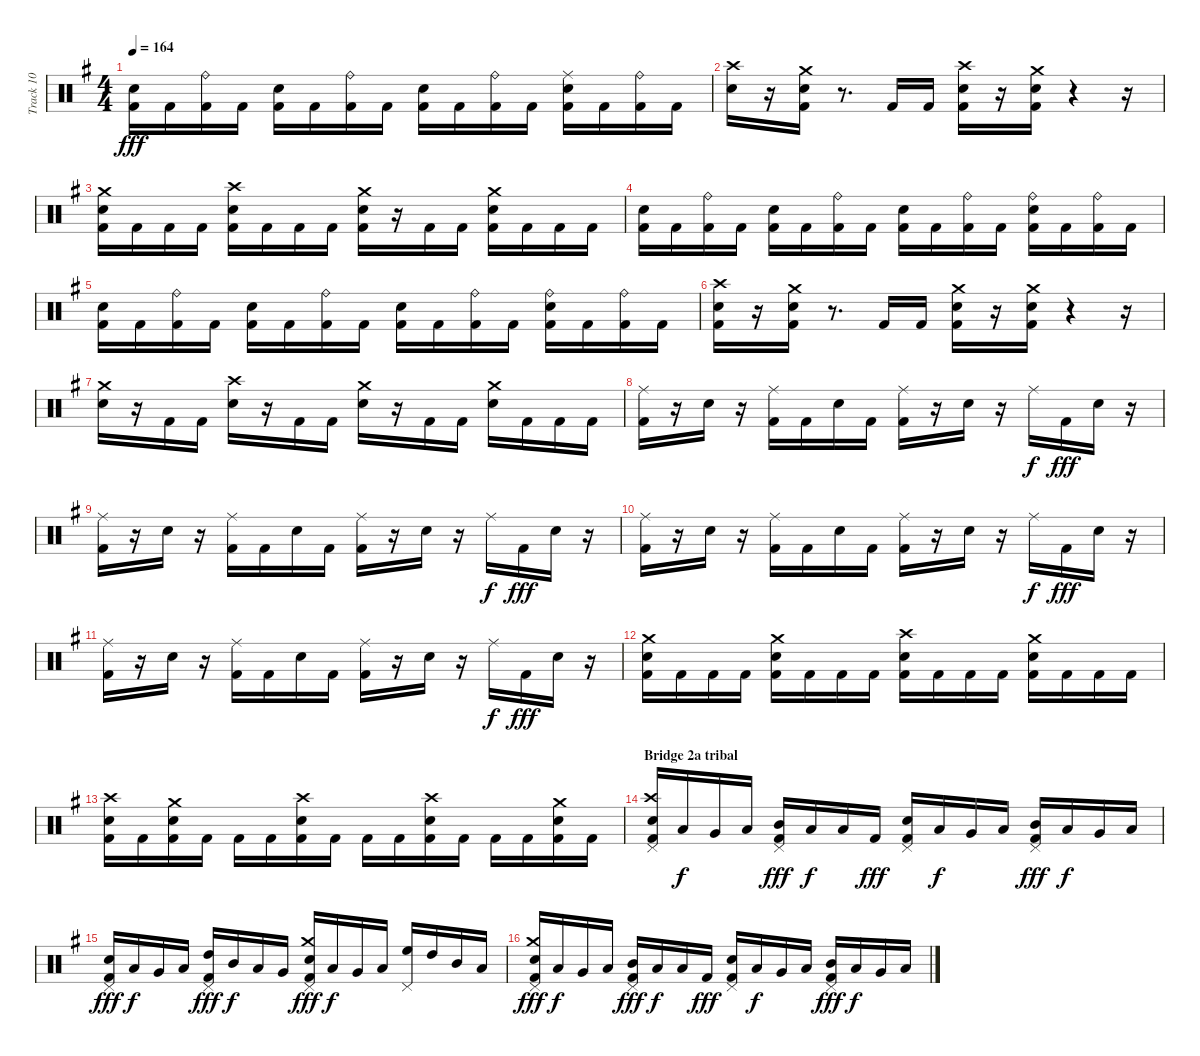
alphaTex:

\track ("Track 10" "Track 10") {instrument percussion}
\staff {score}
\articulation defaults
\ts (4 4)
\tempo 164
\clef neutral
\ks eminor
("Kick (hit) 2" "Electric Snare (hit)").16{dy fff} "Kick (hit) 2".16 ("Kick (hit) 2" "Ride (bell)").16 "Kick (hit) 2".16 ("Kick (hit) 2" "Electric Snare (hit)").16 "Kick (hit) 2".16 ("Kick (hit) 2" "Ride (bell)").16 "Kick (hit) 2".16 ("Kick (hit) 2" "Electric Snare (hit)").16 "Kick (hit) 2".16 ("Kick (hit) 2" "Ride (bell)").16 "Kick (hit) 2".16 ("Electric Snare (hit)" "Kick (hit) 2" "Ride (middle)").16 "Kick (hit) 2".16 ("Kick (hit) 2" "Ride (bell)").16 "Kick (hit) 2".16 |
("Electric Snare (hit)" "Crash high (hit)").16 r.16 ("Kick (hit) 2" "Electric Snare (hit)" "Crash medium (hit)").16 r.8{d} "Kick (hit) 2".16 "Kick (hit) 2".16 ("Electric Snare (hit)" "Kick (hit) 2" "Crash high (hit)").16 r.16 ("Kick (hit) 2" "Electric Snare (hit)" "Crash medium (hit)").16 r.4 r.16 |
("Electric Snare (hit)" "Kick (hit) 2" "Crash medium (hit)").16 "Kick (hit) 2".16 "Kick (hit) 2".16 "Kick (hit) 2".16 ("Kick (hit) 2" "Electric Snare (hit)" "Crash high (hit)").16 "Kick (hit) 2".16 "Kick (hit) 2".16 "Kick (hit) 2".16 ("Kick (hit) 2" "Electric Snare (hit)" "Crash medium (hit)").16 r.16 "Kick (hit) 2".16 "Kick (hit) 2".16 ("Electric Snare (hit)" "Kick (hit) 2" "Crash medium (hit)").16 "Kick (hit) 2".16 "Kick (hit) 2".16 "Kick (hit) 2".16 |
("Kick (hit) 2" "Electric Snare (hit)").16 "Kick (hit) 2".16 ("Kick (hit) 2" "Ride (bell)").16 "Kick (hit) 2".16 ("Electric Snare (hit)" "Kick (hit) 2").16 "Kick (hit) 2".16 ("Kick (hit) 2" "Ride (bell)").16 "Kick (hit) 2".16 ("Electric Snare (hit)" "Kick (hit) 2").16 "Kick (hit) 2".16 ("Kick (hit) 2" "Ride (bell)").16 "Kick (hit) 2".16 ("Kick (hit) 2" "Electric Snare (hit)" "Ride (bell)").16 "Kick (hit) 2".16 ("Kick (hit) 2" "Ride (bell)").16 "Kick (hit) 2".16 |
("Kick (hit) 2" "Electric Snare (hit)").16 "Kick (hit) 2".16 ("Kick (hit) 2" "Ride (bell)").16 "Kick (hit) 2".16 ("Electric Snare (hit)" "Kick (hit) 2").16 "Kick (hit) 2".16 ("Kick (hit) 2" "Ride (bell)").16 "Kick (hit) 2".16 ("Electric Snare (hit)" "Kick (hit) 2").16 "Kick (hit) 2".16 ("Kick (hit) 2" "Ride (bell)").16 "Kick (hit) 2".16 ("Kick (hit) 2" "Electric Snare (hit)" "Ride (bell)").16 "Kick (hit) 2".16 ("Kick (hit) 2" "Ride (bell)").16 "Kick (hit) 2".16 |
("Electric Snare (hit)" "Kick (hit) 2" "Crash high (hit)").16 r.16 ("Electric Snare (hit)" "Kick (hit) 2" "Crash medium (hit)").16 r.8{d} "Kick (hit) 2".16 "Kick (hit) 2".16 ("Kick (hit) 2" "Electric Snare (hit)" "Crash medium (hit)").16 r.16 ("Kick (hit) 2" "Electric Snare (hit)" "Crash medium (hit)").16 r.4 r.16 |
("Electric Snare (hit)" "Crash medium (hit)").16 r.16 "Kick (hit) 2".16 "Kick (hit) 2".16 ("Electric Snare (hit)" "Crash high (hit)").16 r.16 "Kick (hit) 2".16 "Kick (hit) 2".16 ("Electric Snare (hit)" "Crash medium (hit)").16 r.16 "Kick (hit) 2".16 "Kick (hit) 2".16 ("Electric Snare (hit)" "Crash medium (hit)").16 "Kick (hit) 2".16 "Kick (hit) 2".16 "Kick (hit) 2".16 |
("Kick (hit) 2" "Ride (middle)").16 r.16 "Electric Snare (hit)".16 r.16 ("Kick (hit) 2" "Ride (middle)").16 "Kick (hit) 2".16 "Electric Snare (hit)".16 "Kick (hit) 2".16 ("Kick (hit) 2" "Ride (middle)").16 r.16 "Electric Snare (hit)".16 r.16 "Ride (middle)".16{dy f} "Kick (hit) 2".16{dy fff} "Electric Snare (hit)".16 r.16 |
("Kick (hit) 2" "Ride (middle)").16 r.16 "Electric Snare (hit)".16 r.16 ("Kick (hit) 2" "Ride (middle)").16 "Kick (hit) 2".16 "Electric Snare (hit)".16 "Kick (hit) 2".16 ("Kick (hit) 2" "Ride (middle)").16 r.16 "Electric Snare (hit)".16 r.16 "Ride (middle)".16{dy f} "Kick (hit) 2".16{dy fff} "Electric Snare (hit)".16 r.16 |
("Kick (hit) 2" "Ride (middle)").16 r.16 "Electric Snare (hit)".16 r.16 ("Kick (hit) 2" "Ride (middle)").16 "Kick (hit) 2".16 "Electric Snare (hit)".16 "Kick (hit) 2".16 ("Kick (hit) 2" "Ride (middle)").16 r.16 "Electric Snare (hit)".16 r.16 "Ride (middle)".16{dy f} "Kick (hit) 2".16{dy fff} "Electric Snare (hit)".16 r.16 |
("Kick (hit) 2" "Ride (middle)").16 r.16 "Electric Snare (hit)".16 r.16 ("Kick (hit) 2" "Ride (middle)").16 "Kick (hit) 2".16 "Electric Snare (hit)".16 "Kick (hit) 2".16 ("Kick (hit) 2" "Ride (middle)").16 r.16 "Electric Snare (hit)".16 r.16 "Ride (middle)".16{dy f} "Kick (hit) 2".16{dy fff} "Electric Snare (hit)".16 r.16 |
("Kick (hit) 2" "Electric Snare (hit)" "Crash medium (hit)").16 "Kick (hit) 2".16 "Kick (hit) 2".16 "Kick (hit) 2".16 ("Kick (hit) 2" "Electric Snare (hit)" "Crash medium (hit)").16 "Kick (hit) 2".16 "Kick (hit) 2".16 "Kick (hit) 2".16 ("Electric Snare (hit)" "Kick (hit) 2" "Crash high (hit)").16 "Kick (hit) 2".16 "Kick (hit) 2".16 "Kick (hit) 2".16 ("Electric Snare (hit)" "Kick (hit) 2" "Crash medium (hit)").16 "Kick (hit) 2".16 "Kick (hit) 2".16 "Kick (hit) 2".16 |
("Kick (hit) 2" "Electric Snare (hit)" "Crash high (hit)").16 "Kick (hit) 2".16 ("Electric Snare (hit)" "Kick (hit) 2" "Crash medium (hit)").16 "Kick (hit) 2".16 "Kick (hit) 2".16 "Kick (hit) 2".16 ("Kick (hit) 2" "Electric Snare (hit)" "Crash high (hit)").16 "Kick (hit) 2".16 "Kick (hit) 2".16 "Kick (hit) 2".16 ("Kick (hit) 2" "Electric Snare (hit)" "Crash high (hit)").16 "Kick (hit) 2".16 "Kick (hit) 2".16 "Kick (hit) 2".16 ("Electric Snare (hit)" "Kick (hit) 2" "Crash medium (hit)").16 "Kick (hit) 2".16 |
\section ("" "Bridge 2a tribal")
("Pedal Hi-Hat (hit)" "Kick (hit) 2" "Electric Snare (hit)" "Crash high (hit)").16 "Low Floor Tom (hit)".16{dy f} "Very Low Tom (hit)".16 "Low Floor Tom (hit)".16 ("Kick (hit) 2" "Mid Tom (hit)" "Pedal Hi-Hat (hit)").16{dy fff} "Low Tom (hit)".16{dy f} "Low Floor Tom (hit)".16 "Kick (hit) 2".16{dy fff} ("Electric Snare (hit)" "Kick (hit) 2" "Pedal Hi-Hat (hit)").16 "Low Floor Tom (hit)".16{dy f} "Very Low Tom (hit)".16 "Low Floor Tom (hit)".16 ("Kick (hit) 2" "Mid Tom (hit)" "Pedal Hi-Hat (hit)").16{dy fff} "Low Tom (hit)".16{dy f} "Very Low Tom (hit)".16 "Low Tom (hit)".16 |
("Kick (hit) 2" "Electric Snare (hit)" "Pedal Hi-Hat (hit)").16{dy fff} "Low Floor Tom (hit)".16{dy f} "Very Low Tom (hit)".16 "Low Floor Tom (hit)".16 ("Kick (hit) 2" "Pedal Hi-Hat (hit)" "High Tom (hit)").16{dy fff} "Mid Tom (hit)".16{dy f} "Low Tom (hit)".16 "Very Low Tom (hit)".16 ("Electric Snare (hit)" "Kick (hit) 2" "Pedal Hi-Hat (hit)" "Crash medium (hit)").16{dy fff} "Low Floor Tom (hit)".16{dy f} "Very Low Tom (hit)".16 "Low Floor Tom (hit)".16 ("High Floor Tom (hit)" "Pedal Hi-Hat (hit)").16 "High Tom (hit)".16 "Mid Tom (hit)".16 "Low Tom (hit)".16 |
("Kick (hit) 2" "Electric Snare (hit)" "Pedal Hi-Hat (hit)" "Crash medium (hit)").16{dy fff} "Low Floor Tom (hit)".16{dy f} "Very Low Tom (hit)".16 "Low Floor Tom (hit)".16 ("Kick (hit) 2" "Mid Tom (hit)" "Pedal Hi-Hat (hit)").16{dy fff} "Low Tom (hit)".16{dy f} "Low Floor Tom (hit)".16 "Kick (hit) 2".16{dy fff} ("Electric Snare (hit)" "Kick (hit) 2" "Pedal Hi-Hat (hit)").16 "Low Floor Tom (hit)".16{dy f} "Very Low Tom (hit)".16 "Low Floor Tom (hit)".16 ("Kick (hit) 2" "Mid Tom (hit)" "Pedal Hi-Hat (hit)").16{dy fff} "Low Tom (hit)".16{dy f} "Very Low Tom (hit)".16 "Low Tom (hit)".16
